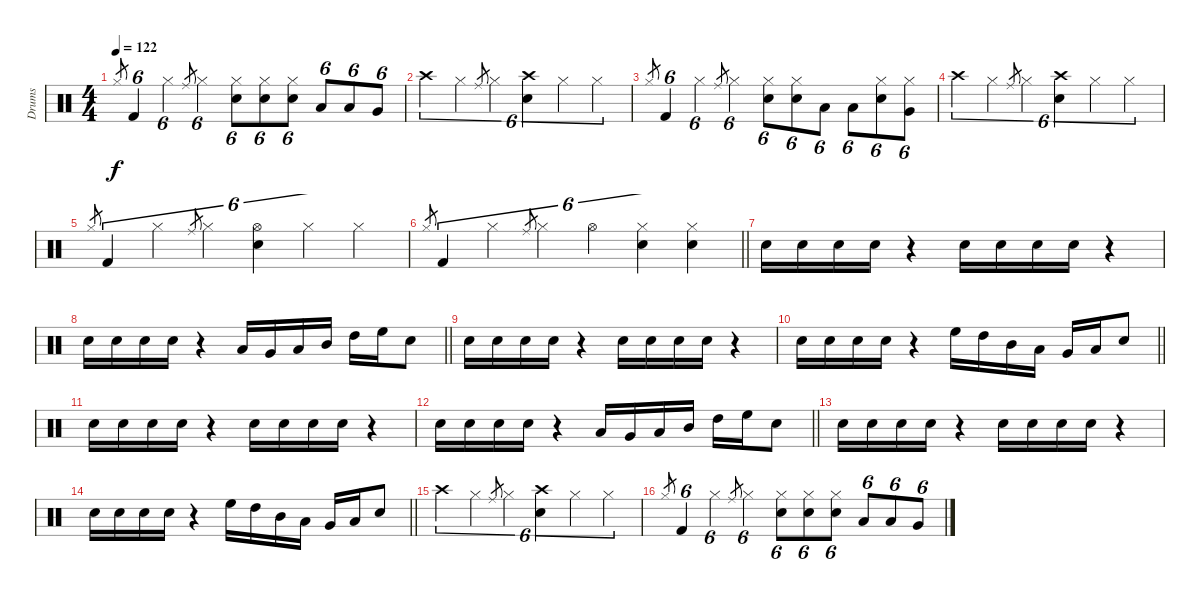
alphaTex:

\track ("Drums" "Drums") {instrument percussion}
\staff {score}
\articulation defaults
\ts (4 4)
\tempo 122
\clef neutral
\ks c "Hi-Hat (closed)".8{gr dy f} "Kick (hit) 2".4{tu (6 4)} "Hi-Hat (closed)".4{tu (6 4)} "Ride (middle)".8{gr} "Hi-Hat (closed)".4{tu (6 4)}
("Hi-Hat (closed)" "Snare (hit) 2").8{tu (6 4)} ("Hi-Hat (closed)" "Snare (hit) 2").8{tu (6 4)} ("Hi-Hat (closed)" "Snare (hit) 2").8{tu (6 4)} "Low Tom (hit)".8{tu (6 4)} "Low Tom (hit)".8{tu (6 4)} "Very Low Tom (hit)".8{tu (6 4)} |
"Crash high (hit)".4{tu (6 4)} "Hi-Hat (closed)".4{tu (6 4)} "Ride (middle)".8{gr} "Hi-Hat (closed)".4{tu (6 4)} ("Crash high (hit)" "Snare (hit) 2").4{tu (6 4)} "Hi-Hat (closed)".4{tu (6 4)} "Hi-Hat (closed)".4{tu (6 4)} |
"Hi-Hat (closed)".8{gr} "Kick (hit) 2".4{tu (6 4)} "Hi-Hat (closed)".4{tu (6 4)} "Ride (middle)".8{gr} "Hi-Hat (closed)".4{tu (6 4)} ("Hi-Hat (closed)" "Snare (hit) 2").8{tu (6 4)} ("Hi-Hat (closed)" "Snare (hit) 2").8{tu (6 4)} "Low Tom (hit)".8{tu (6 4)} "Low Tom (hit)".8{tu (6 4)} ("Hi-Hat (closed)" "Snare (hit) 2").8{tu (6 4)} ("Hi-Hat (closed)" "Very Low Tom (hit)").8{tu (6 4)} |
"Crash high (hit)".4{tu (6 4)} "Hi-Hat (closed)".4{tu (6 4)} "Ride (middle)".8{gr} "Hi-Hat (closed)".4{tu (6 4)} ("Crash high (hit)" "Snare (hit) 2").4{tu (6 4)} "Hi-Hat (closed)".4{tu (6 4)} "Hi-Hat (closed)".4{tu (6 4)} |
"Hi-Hat (closed)".8{gr} "Kick (hit) 2".4{tu (6 4)} "Hi-Hat (closed)".4{tu (6 4)} "Ride (middle)".8{gr} "Hi-Hat (closed)".4{tu (6 4)} ("Hi-Hat (open)" "Snare (hit) 2").4{tu (6 4)} "Hi-Hat (closed)".4{tu (6 4)} "Hi-Hat (closed)".4{tu (6 4)} |
\barLineRight lightlight "Hi-Hat (closed)".8{gr} "Kick (hit) 2".4{tu (6 4)} "Hi-Hat (closed)".4{tu (6 4)} "Ride (middle)".8{gr} "Hi-Hat (closed)".4{tu (6 4)} "Hi-Hat (open)".4{tu (6 4)}
("Hi-Hat (closed)" "Snare (hit) 2").4{tu (6 4)} ("Hi-Hat (closed)" "Snare (hit) 2").4{tu (6 4)} |
"Snare (hit) 2".16 "Snare (hit) 2".16 "Snare (hit) 2".16 "Snare (hit) 2".16 r.4 "Snare (hit) 2".16 "Snare (hit) 2".16 "Snare (hit) 2".16 "Snare (hit) 2".16 r.4 |
\barLineRight lightlight "Snare (hit) 2".16 "Snare (hit) 2".16 "Snare (hit) 2".16 "Snare (hit) 2".16
r.4 "Low Floor Tom (hit)".16 "Very Low Tom (hit)".16 "Low Tom (hit)".16 "Mid Tom (hit)".16 "High Tom (hit)".16 "High Floor Tom (hit)".16 "Snare (hit) 2".8 |
"Snare (hit) 2".16 "Snare (hit) 2".16 "Snare (hit) 2".16 "Snare (hit) 2".16 r.4 "Snare (hit) 2".16 "Snare (hit) 2".16 "Snare (hit) 2".16 "Snare (hit) 2".16 r.4 |
\barLineRight lightlight "Snare (hit) 2".16 "Snare (hit) 2".16 "Snare (hit) 2".16 "Snare (hit) 2".16
r.4 "High Floor Tom (hit)".16 "High Tom (hit)".16 "Mid Tom (hit)".16 "Low Tom (hit)".16 "Very Low Tom (hit)".16 "Low Floor Tom (hit)".16 "Snare (hit) 2".8 |
"Snare (hit) 2".16 "Snare (hit) 2".16 "Snare (hit) 2".16 "Snare (hit) 2".16 r.4 "Snare (hit) 2".16 "Snare (hit) 2".16 "Snare (hit) 2".16 "Snare (hit) 2".16 r.4 |
\barLineRight lightlight "Snare (hit) 2".16 "Snare (hit) 2".16 "Snare (hit) 2".16 "Snare (hit) 2".16
r.4 "Low Floor Tom (hit)".16 "Very Low Tom (hit)".16 "Low Tom (hit)".16 "Mid Tom (hit)".16 "High Tom (hit)".16 "High Floor Tom (hit)".16 "Snare (hit) 2".8 |
"Snare (hit) 2".16 "Snare (hit) 2".16 "Snare (hit) 2".16 "Snare (hit) 2".16 r.4 "Snare (hit) 2".16 "Snare (hit) 2".16 "Snare (hit) 2".16 "Snare (hit) 2".16 r.4 |
\barLineRight lightlight "Snare (hit) 2".16 "Snare (hit) 2".16 "Snare (hit) 2".16 "Snare (hit) 2".16
r.4 "High Floor Tom (hit)".16 "High Tom (hit)".16 "Mid Tom (hit)".16 "Low Tom (hit)".16 "Very Low Tom (hit)".16 "Low Floor Tom (hit)".16 "Snare (hit) 2".8 |
"Crash high (hit)".4{tu (6 4)} "Hi-Hat (closed)".4{tu (6 4)} "Ride (middle)".8{gr} "Hi-Hat (closed)".4{tu (6 4)} ("Crash high (hit)" "Snare (hit) 2").4{tu (6 4)} "Hi-Hat (closed)".4{tu (6 4)} "Hi-Hat (closed)".4{tu (6 4)} |
"Hi-Hat (closed)".8{gr} "Kick (hit) 2".4{tu (6 4)} "Hi-Hat (closed)".4{tu (6 4)} "Ride (middle)".8{gr} "Hi-Hat (closed)".4{tu (6 4)} ("Hi-Hat (closed)" "Snare (hit) 2").8{tu (6 4)} ("Hi-Hat (closed)" "Snare (hit) 2").8{tu (6 4)} ("Hi-Hat (closed)" "Snare (hit) 2").8{tu (6 4)} "Low Tom (hit)".8{tu (6 4)} "Low Tom (hit)".8{tu (6 4)} "Very Low Tom (hit)".8{tu (6 4)}
